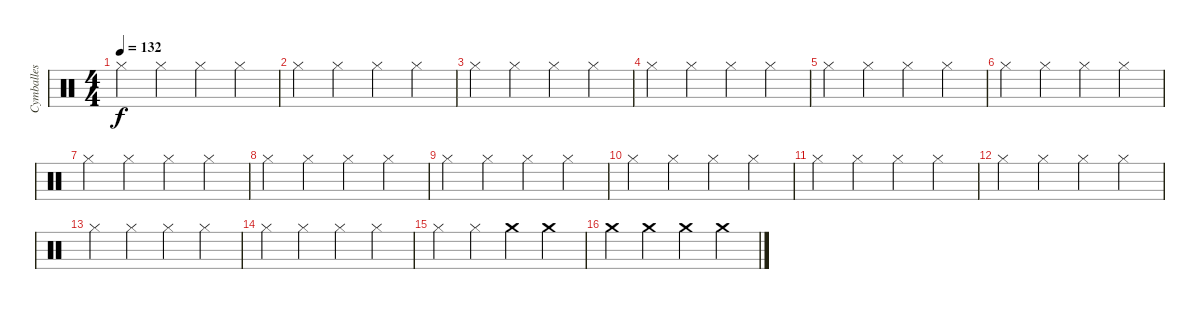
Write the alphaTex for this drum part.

\track ("Cymballes" "Cymballes") {instrument percussion}
\staff {score}
\articulation defaults
\ts (4 4)
\tempo 132
\clef neutral
\ks c "Hi-Hat (closed)".4{dy f} "Hi-Hat (closed)".4 "Hi-Hat (closed)".4 "Hi-Hat (closed)".4
|
"Hi-Hat (closed)".4 "Hi-Hat (closed)".4 "Hi-Hat (closed)".4 "Hi-Hat (closed)".4 |
"Hi-Hat (closed)".4 "Hi-Hat (closed)".4 "Hi-Hat (closed)".4 "Hi-Hat (closed)".4 |
"Hi-Hat (closed)".4 "Hi-Hat (closed)".4 "Hi-Hat (closed)".4 "Hi-Hat (closed)".4 |
"Hi-Hat (closed)".4 "Hi-Hat (closed)".4 "Hi-Hat (closed)".4 "Hi-Hat (closed)".4 |
"Hi-Hat (closed)".4 "Hi-Hat (closed)".4 "Hi-Hat (closed)".4 "Hi-Hat (closed)".4 |
"Hi-Hat (closed)".4 "Hi-Hat (closed)".4 "Hi-Hat (closed)".4 "Hi-Hat (closed)".4 |
"Hi-Hat (closed)".4 "Hi-Hat (closed)".4 "Hi-Hat (closed)".4 "Hi-Hat (closed)".4 |
"Hi-Hat (closed)".4 "Hi-Hat (closed)".4 "Hi-Hat (closed)".4 "Hi-Hat (closed)".4 |
"Hi-Hat (closed)".4 "Hi-Hat (closed)".4 "Hi-Hat (closed)".4 "Hi-Hat (closed)".4 |
"Hi-Hat (closed)".4 "Hi-Hat (closed)".4 "Hi-Hat (closed)".4 "Hi-Hat (closed)".4 |
"Hi-Hat (closed)".4 "Hi-Hat (closed)".4 "Hi-Hat (closed)".4 "Hi-Hat (closed)".4 |
"Hi-Hat (closed)".4 "Hi-Hat (closed)".4 "Hi-Hat (closed)".4 "Hi-Hat (closed)".4 |
"Hi-Hat (closed)".4 "Hi-Hat (closed)".4 "Hi-Hat (closed)".4 "Hi-Hat (closed)".4 |
"Hi-Hat (closed)".4 "Hi-Hat (closed)".4 "Crash medium (hit)".4 "Crash medium (hit)".4 |
"Crash medium (hit)".4 "Crash medium (hit)".4 "Crash medium (hit)".4 "Crash medium (hit)".4
